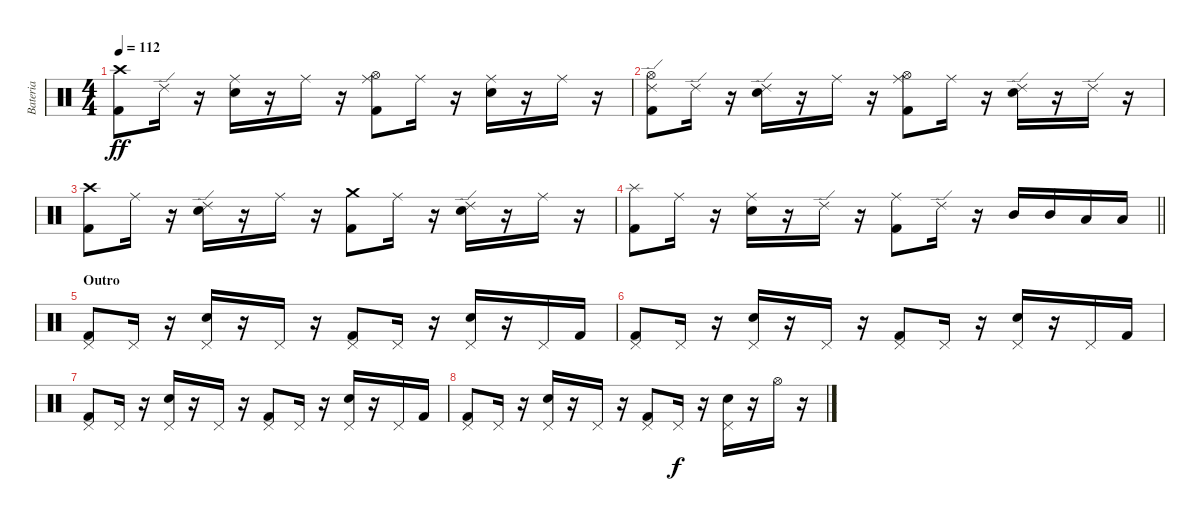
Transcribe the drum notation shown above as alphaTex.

\track ("Bateria" "Bateria") {instrument percussion}
\staff {score}
\articulation defaults
\ts (4 4)
\tempo 112
\clef neutral
\ks c
("Kick (hit) 2" "Crash high (hit)").8{dy ff} "Ride (edge) 2".16 r.16 ("Ride (middle)" "Snare (hit) 2").16 r.16 "Ride (middle)".16 r.16 ("Ride (middle)" "Kick (hit) 2" "Hi-Hat (open)").8 "Ride (middle)".16 r.16 ("Ride (middle)" "Snare (hit) 2").16 r.16 "Ride (middle)".16 r.16 |
("Ride (edge) 2" "Kick (hit) 2" "Hi-Hat (open)").8 "Ride (edge) 2".16 r.16 ("Ride (edge) 2" "Snare (hit) 2").16 r.16 "Ride (middle)".16 r.16 ("Ride (middle)" "Kick (hit) 2" "Hi-Hat (open)").8 "Ride (middle)".16 r.16 ("Ride (edge) 2" "Snare (hit) 2").16 r.16 "Ride (edge) 2".16 r.16 |
("Crash high (hit)" "Kick (hit) 2").8 "Ride (middle)".16 r.16 ("Ride (edge) 2" "Snare (hit) 2").16 r.16 "Ride (middle)".16 r.16 ("Crash medium (hit)" "Kick (hit) 2").8 "Ride (middle)".16 r.16 ("Ride (edge) 2" "Snare (hit) 2").16 r.16 "Ride (middle)".16 r.16 |
\barLineRight lightlight
("Splash (hit)" "Kick (hit) 2").8 "Ride (middle)".16 r.16 ("Ride (middle)" "Snare (hit) 2").16 r.16 "Ride (edge) 2".16 r.16 ("Ride (middle)" "Kick (hit) 2").8 "Ride (edge) 2".16 r.16 "Mid Tom (hit)".16 "Mid Tom (hit)".16 "Low Tom (hit)".16 "Low Tom (hit)".16 |
\section ("" "Outro")
("Kick (hit) 2" "Pedal Hi-Hat (hit)").8 "Pedal Hi-Hat (hit)".16 r.16 ("Snare (hit) 2" "Pedal Hi-Hat (hit)").16 r.16 "Pedal Hi-Hat (hit)".16 r.16 ("Pedal Hi-Hat (hit)" "Kick (hit) 2").8 "Pedal Hi-Hat (hit)".16 r.16 ("Pedal Hi-Hat (hit)" "Snare (hit) 2").16 r.16 "Pedal Hi-Hat (hit)".16 "Kick (hit) 2".16 |
("Pedal Hi-Hat (hit)" "Kick (hit) 2").8 "Pedal Hi-Hat (hit)".16 r.16 ("Pedal Hi-Hat (hit)" "Snare (hit) 2").16 r.16 "Pedal Hi-Hat (hit)".16 r.16 ("Pedal Hi-Hat (hit)" "Kick (hit) 2").8 "Pedal Hi-Hat (hit)".16 r.16 ("Pedal Hi-Hat (hit)" "Snare (hit) 2").16 r.16 "Pedal Hi-Hat (hit)".16 "Kick (hit) 2".16 |
("Pedal Hi-Hat (hit)" "Kick (hit) 2").8 "Pedal Hi-Hat (hit)".16 r.16 ("Pedal Hi-Hat (hit)" "Snare (hit) 2").16 r.16 "Pedal Hi-Hat (hit)".16 r.16 ("Pedal Hi-Hat (hit)" "Kick (hit) 2").8 "Pedal Hi-Hat (hit)".16 r.16 ("Pedal Hi-Hat (hit)" "Snare (hit) 2").16 r.16 "Pedal Hi-Hat (hit)".16 "Kick (hit) 2".16 |
("Pedal Hi-Hat (hit)" "Kick (hit) 2").8 "Pedal Hi-Hat (hit)".16 r.16 ("Pedal Hi-Hat (hit)" "Snare (hit) 2").16 r.16 "Pedal Hi-Hat (hit)".16 r.16 ("Pedal Hi-Hat (hit)" "Kick (hit) 2").8 "Pedal Hi-Hat (hit)".16{dy f} r.16 ("Pedal Hi-Hat (hit)" "Snare (hit) 2").16 r.16 "Hi-Hat (open)".16 r.16
